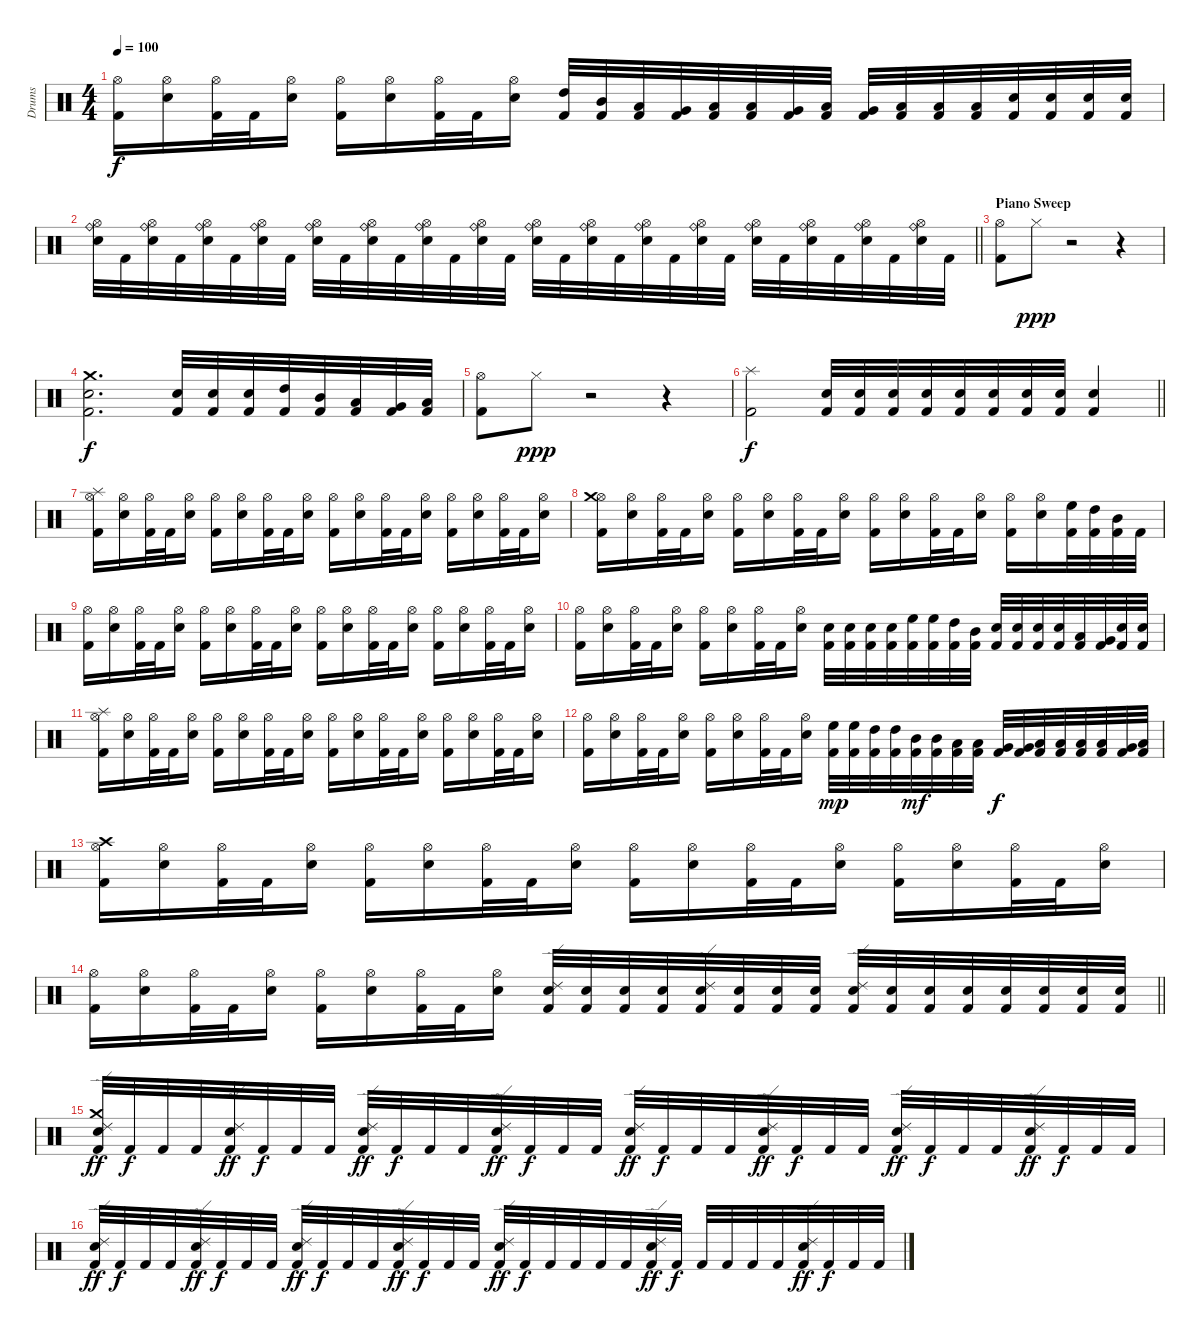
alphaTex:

\track ("Drums" "Drums") {instrument percussion}
\staff {score}
\articulation defaults
\ts (4 4)
\tempo 100
\clef neutral
\ks c
("Kick (hit) 2" "Hi-Hat (open)").16{dy f} ("Electric Snare (hit)" "Hi-Hat (open)").16 ("Kick (hit) 2" "Hi-Hat (open)").32 "Kick (hit) 2".32 ("Electric Snare (hit)" "Hi-Hat (open)").16 ("Kick (hit) 2" "Hi-Hat (open)").16 ("Electric Snare (hit)" "Hi-Hat (open)").16 ("Kick (hit) 2" "Hi-Hat (open)").32 "Kick (hit) 2".32 ("Electric Snare (hit)" "Hi-Hat (open)").16 ("Kick (hit) 2" "High Tom (hit)").32 ("Kick (hit) 2" "Mid Tom (hit)").32 ("Kick (hit) 2" "Low Tom (hit)").32 ("Kick (hit) 2" "Very Low Tom (hit)").32 ("Kick (hit) 2" "Low Floor Tom (hit)").32 ("Kick (hit) 2" "Low Tom (hit)").32 ("Kick (hit) 2" "Very Low Tom (hit)").32 ("Kick (hit) 2" "Low Tom (hit)").32 ("Kick (hit) 2" "Very Low Tom (hit)").32 ("Kick (hit) 2" "Low Floor Tom (hit)").32 ("Kick (hit) 2" "Low Floor Tom (hit)").32 ("Kick (hit) 2" "Low Floor Tom (hit)").32 ("Kick (hit) 2" "Electric Snare (hit)").32 ("Kick (hit) 2" "Electric Snare (hit)").32 ("Kick (hit) 2" "Electric Snare (hit)").32 ("Kick (hit) 2" "Electric Snare (hit)").32 |
\barLineRight lightlight
("Electric Snare (hit)" "Ride (bell)" "Hi-Hat (open)").32 "Kick (hit) 2".32 ("Electric Snare (hit)" "Ride (bell)" "Hi-Hat (open)").32 "Kick (hit) 2".32 ("Electric Snare (hit)" "Ride (bell)" "Hi-Hat (open)").32 "Kick (hit) 2".32 ("Electric Snare (hit)" "Ride (bell)" "Hi-Hat (open)").32 "Kick (hit) 2".32 ("Electric Snare (hit)" "Ride (bell)" "Hi-Hat (open)").32 "Kick (hit) 2".32 ("Electric Snare (hit)" "Ride (bell)" "Hi-Hat (open)").32 "Kick (hit) 2".32 ("Electric Snare (hit)" "Ride (bell)" "Hi-Hat (open)").32 "Kick (hit) 2".32 ("Electric Snare (hit)" "Ride (bell)" "Hi-Hat (open)").32 "Kick (hit) 2".32 ("Electric Snare (hit)" "Ride (bell)" "Hi-Hat (open)").32 "Kick (hit) 2".32 ("Electric Snare (hit)" "Ride (bell)" "Hi-Hat (open)").32 "Kick (hit) 2".32 ("Electric Snare (hit)" "Ride (bell)" "Hi-Hat (open)").32 "Kick (hit) 2".32 ("Electric Snare (hit)" "Ride (bell)" "Hi-Hat (open)").32 "Kick (hit) 2".32 ("Electric Snare (hit)" "Ride (bell)" "Hi-Hat (open)").32 "Kick (hit) 2".32 ("Electric Snare (hit)" "Ride (bell)" "Hi-Hat (open)").32 "Kick (hit) 2".32 ("Electric Snare (hit)" "Ride (bell)" "Hi-Hat (open)").32 "Kick (hit) 2".32 ("Electric Snare (hit)" "Ride (bell)" "Hi-Hat (open)").32 "Kick (hit) 2".32 |
\section ("" "Piano Sweep")
("Kick (hit) 2" "Hi-Hat (open)").8 "Hi-Hat (closed)".8{dy ppp} r.2 r.4 |
("Kick (hit) 2" "Electric Snare (hit)" "Crash medium (hit)").2{d dy f} ("Kick (hit) 2" "Electric Snare (hit)").32 ("Kick (hit) 2" "Electric Snare (hit)").32 ("Kick (hit) 2" "Electric Snare (hit)").32 ("Kick (hit) 2" "High Tom (hit)").32 ("Kick (hit) 2" "Mid Tom (hit)").32 ("Kick (hit) 2" "Low Tom (hit)").32 ("Kick (hit) 2" "Very Low Tom (hit)").32 ("Kick (hit) 2" "Low Floor Tom (hit)").32 |
("Kick (hit) 2" "Hi-Hat (open)").8 "Hi-Hat (closed)".8{dy ppp} r.2 r.4 |
\barLineRight lightlight
("Kick (hit) 2" "Splash (hit)").2{dy f} ("Kick (hit) 2" "Electric Snare (hit)").32 ("Kick (hit) 2" "Electric Snare (hit)").32 ("Kick (hit) 2" "Electric Snare (hit)").32 ("Kick (hit) 2" "Electric Snare (hit)").32 ("Kick (hit) 2" "Electric Snare (hit)").32 ("Kick (hit) 2" "Electric Snare (hit)").32 ("Kick (hit) 2" "Electric Snare (hit)").32 ("Kick (hit) 2" "Electric Snare (hit)").32 ("Kick (hit) 2" "Electric Snare (hit)").4 |
\section ("" "")
("Kick (hit) 2" "Hi-Hat (open)" "Splash (hit)").16 ("Electric Snare (hit)" "Hi-Hat (open)").16 ("Kick (hit) 2" "Hi-Hat (open)").32 "Kick (hit) 2".32 ("Electric Snare (hit)" "Hi-Hat (open)").16 ("Kick (hit) 2" "Hi-Hat (open)").16 ("Electric Snare (hit)" "Hi-Hat (open)").16 ("Kick (hit) 2" "Hi-Hat (open)").32 "Kick (hit) 2".32 ("Electric Snare (hit)" "Hi-Hat (open)").16 ("Kick (hit) 2" "Hi-Hat (open)").16 ("Electric Snare (hit)" "Hi-Hat (open)").16 ("Kick (hit) 2" "Hi-Hat (open)").32 "Kick (hit) 2".32 ("Electric Snare (hit)" "Hi-Hat (open)").16 ("Kick (hit) 2" "Hi-Hat (open)").16 ("Electric Snare (hit)" "Hi-Hat (open)").16 ("Kick (hit) 2" "Hi-Hat (open)").32 "Kick (hit) 2".32 ("Electric Snare (hit)" "Hi-Hat (open)").16 |
("Kick (hit) 2" "Hi-Hat (open)" "Crash medium (hit)").16 ("Electric Snare (hit)" "Hi-Hat (open)").16 ("Kick (hit) 2" "Hi-Hat (open)").32 "Kick (hit) 2".32 ("Electric Snare (hit)" "Hi-Hat (open)").16 ("Kick (hit) 2" "Hi-Hat (open)").16 ("Electric Snare (hit)" "Hi-Hat (open)").16 ("Kick (hit) 2" "Hi-Hat (open)").32 "Kick (hit) 2".32 ("Electric Snare (hit)" "Hi-Hat (open)").16 ("Kick (hit) 2" "Hi-Hat (open)").16 ("Electric Snare (hit)" "Hi-Hat (open)").16 ("Kick (hit) 2" "Hi-Hat (open)").32 "Kick (hit) 2".32 ("Electric Snare (hit)" "Hi-Hat (open)").16 ("Kick (hit) 2" "Hi-Hat (open)").16 ("Electric Snare (hit)" "Hi-Hat (open)").16 ("Kick (hit) 2" "High Floor Tom (hit)").32 ("Kick (hit) 2" "High Tom (hit)").32 ("Kick (hit) 2" "Mid Tom (hit)").32 "Kick (hit) 2".32 |
("Kick (hit) 2" "Hi-Hat (open)").16 ("Electric Snare (hit)" "Hi-Hat (open)").16 ("Kick (hit) 2" "Hi-Hat (open)").32 "Kick (hit) 2".32 ("Electric Snare (hit)" "Hi-Hat (open)").16 ("Kick (hit) 2" "Hi-Hat (open)").16 ("Electric Snare (hit)" "Hi-Hat (open)").16 ("Kick (hit) 2" "Hi-Hat (open)").32 "Kick (hit) 2".32 ("Electric Snare (hit)" "Hi-Hat (open)").16 ("Kick (hit) 2" "Hi-Hat (open)").16 ("Electric Snare (hit)" "Hi-Hat (open)").16 ("Kick (hit) 2" "Hi-Hat (open)").32 "Kick (hit) 2".32 ("Electric Snare (hit)" "Hi-Hat (open)").16 ("Kick (hit) 2" "Hi-Hat (open)").16 ("Electric Snare (hit)" "Hi-Hat (open)").16 ("Kick (hit) 2" "Hi-Hat (open)").32 "Kick (hit) 2".32 ("Electric Snare (hit)" "Hi-Hat (open)").16 |
("Kick (hit) 2" "Hi-Hat (open)").16 ("Electric Snare (hit)" "Hi-Hat (open)").16 ("Kick (hit) 2" "Hi-Hat (open)").32 "Kick (hit) 2".32 ("Electric Snare (hit)" "Hi-Hat (open)").16 ("Kick (hit) 2" "Hi-Hat (open)").16 ("Electric Snare (hit)" "Hi-Hat (open)").16 ("Kick (hit) 2" "Hi-Hat (open)").32 "Kick (hit) 2".32 ("Electric Snare (hit)" "Hi-Hat (open)").16 ("Kick (hit) 2" "Electric Snare (hit)").32 ("Kick (hit) 2" "Electric Snare (hit)").32 ("Kick (hit) 2" "Electric Snare (hit)").32 ("Kick (hit) 2" "Electric Snare (hit)").32 ("Kick (hit) 2" "High Floor Tom (hit)").32 ("Kick (hit) 2" "High Floor Tom (hit)").32 ("Kick (hit) 2" "High Tom (hit)").32 ("Kick (hit) 2" "Mid Tom (hit)").32 ("Kick (hit) 2" "Electric Snare (hit)").32 ("Kick (hit) 2" "Electric Snare (hit)").32 ("Kick (hit) 2" "Electric Snare (hit)").32 ("Kick (hit) 2" "Electric Snare (hit)").32 ("Kick (hit) 2" "Low Tom (hit)").32 ("Kick (hit) 2" "Very Low Tom (hit)").32 ("Kick (hit) 2" "Electric Snare (hit)").32 ("Kick (hit) 2" "Electric Snare (hit)").32 |
("Kick (hit) 2" "Hi-Hat (open)" "Splash (hit)").16 ("Electric Snare (hit)" "Hi-Hat (open)").16 ("Kick (hit) 2" "Hi-Hat (open)").32 "Kick (hit) 2".32 ("Electric Snare (hit)" "Hi-Hat (open)").16 ("Kick (hit) 2" "Hi-Hat (open)").16 ("Electric Snare (hit)" "Hi-Hat (open)").16 ("Kick (hit) 2" "Hi-Hat (open)").32 "Kick (hit) 2".32 ("Electric Snare (hit)" "Hi-Hat (open)").16 ("Kick (hit) 2" "Hi-Hat (open)").16 ("Electric Snare (hit)" "Hi-Hat (open)").16 ("Kick (hit) 2" "Hi-Hat (open)").32 "Kick (hit) 2".32 ("Electric Snare (hit)" "Hi-Hat (open)").16 ("Kick (hit) 2" "Hi-Hat (open)").16 ("Electric Snare (hit)" "Hi-Hat (open)").16 ("Kick (hit) 2" "Hi-Hat (open)").32 "Kick (hit) 2".32 ("Electric Snare (hit)" "Hi-Hat (open)").16 |
("Kick (hit) 2" "Hi-Hat (open)").16 ("Electric Snare (hit)" "Hi-Hat (open)").16 ("Kick (hit) 2" "Hi-Hat (open)").32 "Kick (hit) 2".32 ("Electric Snare (hit)" "Hi-Hat (open)").16 ("Kick (hit) 2" "Hi-Hat (open)").16 ("Electric Snare (hit)" "Hi-Hat (open)").16 ("Kick (hit) 2" "Hi-Hat (open)").32 "Kick (hit) 2".32 ("Electric Snare (hit)" "Hi-Hat (open)").16 ("Kick (hit) 2" "High Floor Tom (hit)").32{dy mp} ("Kick (hit) 2" "High Floor Tom (hit)").32 ("Kick (hit) 2" "High Tom (hit)").32 ("Kick (hit) 2" "High Tom (hit)").32 ("Kick (hit) 2" "Mid Tom (hit)").32{dy mf} ("Kick (hit) 2" "Mid Tom (hit)").32 ("Kick (hit) 2" "Low Tom (hit)").32 ("Kick (hit) 2" "Low Tom (hit)").32 ("Kick (hit) 2" "Very Low Tom (hit)").32{dy f} ("Kick (hit) 2" "Very Low Tom (hit)").32 ("Kick (hit) 2" "Low Floor Tom (hit)").32 ("Kick (hit) 2" "Low Floor Tom (hit)").32 ("Kick (hit) 2" "Low Tom (hit)").32 ("Kick (hit) 2" "Low Tom (hit)").32 ("Kick (hit) 2" "Very Low Tom (hit)").32 ("Kick (hit) 2" "Low Floor Tom (hit)").32 |
("Kick (hit) 2" "Hi-Hat (open)" "Crash high (hit)").16 ("Electric Snare (hit)" "Hi-Hat (open)").16 ("Kick (hit) 2" "Hi-Hat (open)").32 "Kick (hit) 2".32 ("Electric Snare (hit)" "Hi-Hat (open)").16 ("Kick (hit) 2" "Hi-Hat (open)").16 ("Electric Snare (hit)" "Hi-Hat (open)").16 ("Kick (hit) 2" "Hi-Hat (open)").32 "Kick (hit) 2".32 ("Electric Snare (hit)" "Hi-Hat (open)").16 ("Kick (hit) 2" "Hi-Hat (open)").16 ("Electric Snare (hit)" "Hi-Hat (open)").16 ("Kick (hit) 2" "Hi-Hat (open)").32 "Kick (hit) 2".32 ("Electric Snare (hit)" "Hi-Hat (open)").16 ("Kick (hit) 2" "Hi-Hat (open)").16 ("Electric Snare (hit)" "Hi-Hat (open)").16 ("Kick (hit) 2" "Hi-Hat (open)").32 "Kick (hit) 2".32 ("Electric Snare (hit)" "Hi-Hat (open)").16 |
\barLineRight lightlight
("Kick (hit) 2" "Hi-Hat (open)").16 ("Electric Snare (hit)" "Hi-Hat (open)").16 ("Kick (hit) 2" "Hi-Hat (open)").32 "Kick (hit) 2".32 ("Electric Snare (hit)" "Hi-Hat (open)").16 ("Kick (hit) 2" "Hi-Hat (open)").16 ("Electric Snare (hit)" "Hi-Hat (open)").16 ("Kick (hit) 2" "Hi-Hat (open)").32 "Kick (hit) 2".32 ("Electric Snare (hit)" "Hi-Hat (open)").16 ("Kick (hit) 2" "Electric Snare (hit)" "Ride (edge) 2").32 ("Kick (hit) 2" "Electric Snare (hit)").32 ("Kick (hit) 2" "Electric Snare (hit)").32 ("Kick (hit) 2" "Electric Snare (hit)").32 ("Kick (hit) 2" "Electric Snare (hit)" "Ride (edge) 2").32 ("Kick (hit) 2" "Electric Snare (hit)").32 ("Kick (hit) 2" "Electric Snare (hit)").32 ("Kick (hit) 2" "Electric Snare (hit)").32 ("Kick (hit) 2" "Electric Snare (hit)" "Ride (edge) 2").32 ("Kick (hit) 2" "Electric Snare (hit)").32 ("Kick (hit) 2" "Electric Snare (hit)").32 ("Kick (hit) 2" "Electric Snare (hit)").32 ("Kick (hit) 2" "Electric Snare (hit)").32 ("Kick (hit) 2" "Electric Snare (hit)").32 ("Kick (hit) 2" "Electric Snare (hit)").32 ("Kick (hit) 2" "Electric Snare (hit)").32 |
\section ("" "")
("Kick (hit) 2" "Electric Snare (hit)" "Ride (edge) 2" "Crash medium (hit)").32{dy ff} "Kick (hit) 2".32{dy f} "Kick (hit) 2".32 "Kick (hit) 2".32 ("Kick (hit) 2" "Electric Snare (hit)" "Ride (edge) 2").32{dy ff} "Kick (hit) 2".32{dy f} "Kick (hit) 2".32 "Kick (hit) 2".32 ("Kick (hit) 2" "Electric Snare (hit)" "Ride (edge) 2").32{dy ff} "Kick (hit) 2".32{dy f} "Kick (hit) 2".32 "Kick (hit) 2".32 ("Kick (hit) 2" "Electric Snare (hit)" "Ride (edge) 2").32{dy ff} "Kick (hit) 2".32{dy f} "Kick (hit) 2".32 "Kick (hit) 2".32 ("Kick (hit) 2" "Electric Snare (hit)" "Ride (edge) 2").32{dy ff} "Kick (hit) 2".32{dy f} "Kick (hit) 2".32 "Kick (hit) 2".32 ("Kick (hit) 2" "Electric Snare (hit)" "Ride (edge) 2").32{dy ff} "Kick (hit) 2".32{dy f} "Kick (hit) 2".32 "Kick (hit) 2".32 ("Kick (hit) 2" "Electric Snare (hit)" "Ride (edge) 2").32{dy ff} "Kick (hit) 2".32{dy f} "Kick (hit) 2".32 "Kick (hit) 2".32 ("Kick (hit) 2" "Electric Snare (hit)" "Ride (edge) 2").32{dy ff} "Kick (hit) 2".32{dy f} "Kick (hit) 2".32 "Kick (hit) 2".32 |
("Kick (hit) 2" "Electric Snare (hit)" "Ride (edge) 2").32{dy ff} "Kick (hit) 2".32{dy f} "Kick (hit) 2".32 "Kick (hit) 2".32 ("Kick (hit) 2" "Electric Snare (hit)" "Ride (edge) 2").32{dy ff} "Kick (hit) 2".32{dy f} "Kick (hit) 2".32 "Kick (hit) 2".32 ("Kick (hit) 2" "Electric Snare (hit)" "Ride (edge) 2").32{dy ff} "Kick (hit) 2".32{dy f} "Kick (hit) 2".32 "Kick (hit) 2".32 ("Kick (hit) 2" "Electric Snare (hit)" "Ride (edge) 2").32{dy ff} "Kick (hit) 2".32{dy f} "Kick (hit) 2".32 "Kick (hit) 2".32 ("Kick (hit) 2" "Electric Snare (hit)" "Ride (edge) 2").32{dy ff} "Kick (hit) 2".32{dy f} "Kick (hit) 2".32 "Kick (hit) 2".32 "Kick (hit) 2".32 "Kick (hit) 2".32 ("Kick (hit) 2" "Electric Snare (hit)" "Ride (edge) 2").32{dy ff} "Kick (hit) 2".32{dy f} "Kick (hit) 2".32 "Kick (hit) 2".32 "Kick (hit) 2".32 "Kick (hit) 2".32 ("Kick (hit) 2" "Electric Snare (hit)" "Ride (edge) 2").32{dy ff} "Kick (hit) 2".32{dy f} "Kick (hit) 2".32 "Kick (hit) 2".32
